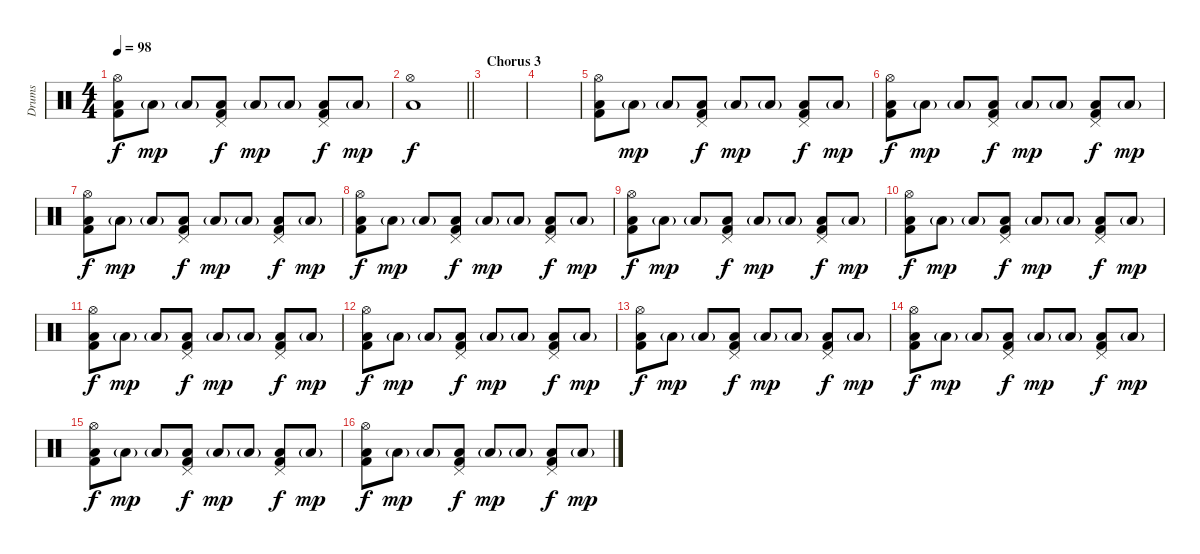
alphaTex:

\track ("Drums" "Drums") {instrument percussion}
\staff {score}
\articulation defaults
\ts (4 4)
\tempo 98
\clef neutral
\ks c
("Hi-Hat (open)" "Kick (hit) 2" "Low Tom (hit)").8{dy f} "Low Tom (hit)"{g}.8{dy mp} "Low Tom (hit)"{g}.8 ("Pedal Hi-Hat (hit)" "Kick (hit) 2" "Low Tom (hit)").8{dy f} "Low Tom (hit)"{g}.8{dy mp} "Low Tom (hit)"{g}.8 ("Pedal Hi-Hat (hit)" "Kick (hit) 2" "Low Tom (hit)").8{dy f} "Low Tom (hit)"{g}.8{dy mp} |
\barLineRight lightlight
("Hi-Hat (open)" "Low Tom (hit)").1{dy f} |
\section ("" "Chorus 3")
|
|
("Hi-Hat (open)" "Kick (hit) 2" "Low Tom (hit)").8 "Low Tom (hit)"{g}.8{dy mp} "Low Tom (hit)"{g}.8 ("Pedal Hi-Hat (hit)" "Kick (hit) 2" "Low Tom (hit)").8{dy f} "Low Tom (hit)"{g}.8{dy mp} "Low Tom (hit)"{g}.8 ("Pedal Hi-Hat (hit)" "Kick (hit) 2" "Low Tom (hit)").8{dy f} "Low Tom (hit)"{g}.8{dy mp} |
("Hi-Hat (open)" "Kick (hit) 2" "Low Tom (hit)").8{dy f} "Low Tom (hit)"{g}.8{dy mp} "Low Tom (hit)"{g}.8 ("Pedal Hi-Hat (hit)" "Kick (hit) 2" "Low Tom (hit)").8{dy f} "Low Tom (hit)"{g}.8{dy mp} "Low Tom (hit)"{g}.8 ("Pedal Hi-Hat (hit)" "Kick (hit) 2" "Low Tom (hit)").8{dy f} "Low Tom (hit)"{g}.8{dy mp} |
("Hi-Hat (open)" "Kick (hit) 2" "Low Tom (hit)").8{dy f} "Low Tom (hit)"{g}.8{dy mp} "Low Tom (hit)"{g}.8 ("Pedal Hi-Hat (hit)" "Kick (hit) 2" "Low Tom (hit)").8{dy f} "Low Tom (hit)"{g}.8{dy mp} "Low Tom (hit)"{g}.8 ("Pedal Hi-Hat (hit)" "Kick (hit) 2" "Low Tom (hit)").8{dy f} "Low Tom (hit)"{g}.8{dy mp} |
("Hi-Hat (open)" "Kick (hit) 2" "Low Tom (hit)").8{dy f} "Low Tom (hit)"{g}.8{dy mp} "Low Tom (hit)"{g}.8 ("Pedal Hi-Hat (hit)" "Kick (hit) 2" "Low Tom (hit)").8{dy f} "Low Tom (hit)"{g}.8{dy mp} "Low Tom (hit)"{g}.8 ("Pedal Hi-Hat (hit)" "Kick (hit) 2" "Low Tom (hit)").8{dy f} "Low Tom (hit)"{g}.8{dy mp} |
("Hi-Hat (open)" "Kick (hit) 2" "Low Tom (hit)").8{dy f} "Low Tom (hit)"{g}.8{dy mp} "Low Tom (hit)"{g}.8 ("Pedal Hi-Hat (hit)" "Kick (hit) 2" "Low Tom (hit)").8{dy f} "Low Tom (hit)"{g}.8{dy mp} "Low Tom (hit)"{g}.8 ("Pedal Hi-Hat (hit)" "Kick (hit) 2" "Low Tom (hit)").8{dy f} "Low Tom (hit)"{g}.8{dy mp} |
("Hi-Hat (open)" "Kick (hit) 2" "Low Tom (hit)").8{dy f} "Low Tom (hit)"{g}.8{dy mp} "Low Tom (hit)"{g}.8 ("Pedal Hi-Hat (hit)" "Kick (hit) 2" "Low Tom (hit)").8{dy f} "Low Tom (hit)"{g}.8{dy mp} "Low Tom (hit)"{g}.8 ("Pedal Hi-Hat (hit)" "Kick (hit) 2" "Low Tom (hit)").8{dy f} "Low Tom (hit)"{g}.8{dy mp} |
("Hi-Hat (open)" "Kick (hit) 2" "Low Tom (hit)").8{dy f} "Low Tom (hit)"{g}.8{dy mp} "Low Tom (hit)"{g}.8 ("Pedal Hi-Hat (hit)" "Kick (hit) 2" "Low Tom (hit)").8{dy f} "Low Tom (hit)"{g}.8{dy mp} "Low Tom (hit)"{g}.8 ("Pedal Hi-Hat (hit)" "Kick (hit) 2" "Low Tom (hit)").8{dy f} "Low Tom (hit)"{g}.8{dy mp} |
("Hi-Hat (open)" "Kick (hit) 2" "Low Tom (hit)").8{dy f} "Low Tom (hit)"{g}.8{dy mp} "Low Tom (hit)"{g}.8 ("Pedal Hi-Hat (hit)" "Kick (hit) 2" "Low Tom (hit)").8{dy f} "Low Tom (hit)"{g}.8{dy mp} "Low Tom (hit)"{g}.8 ("Pedal Hi-Hat (hit)" "Kick (hit) 2" "Low Tom (hit)").8{dy f} "Low Tom (hit)"{g}.8{dy mp} |
("Hi-Hat (open)" "Kick (hit) 2" "Low Tom (hit)").8{dy f} "Low Tom (hit)"{g}.8{dy mp} "Low Tom (hit)"{g}.8 ("Pedal Hi-Hat (hit)" "Kick (hit) 2" "Low Tom (hit)").8{dy f} "Low Tom (hit)"{g}.8{dy mp} "Low Tom (hit)"{g}.8 ("Pedal Hi-Hat (hit)" "Kick (hit) 2" "Low Tom (hit)").8{dy f} "Low Tom (hit)"{g}.8{dy mp} |
("Hi-Hat (open)" "Kick (hit) 2" "Low Tom (hit)").8{dy f} "Low Tom (hit)"{g}.8{dy mp} "Low Tom (hit)"{g}.8 ("Pedal Hi-Hat (hit)" "Kick (hit) 2" "Low Tom (hit)").8{dy f} "Low Tom (hit)"{g}.8{dy mp} "Low Tom (hit)"{g}.8 ("Pedal Hi-Hat (hit)" "Kick (hit) 2" "Low Tom (hit)").8{dy f} "Low Tom (hit)"{g}.8{dy mp} |
("Hi-Hat (open)" "Kick (hit) 2" "Low Tom (hit)").8{dy f} "Low Tom (hit)"{g}.8{dy mp} "Low Tom (hit)"{g}.8 ("Pedal Hi-Hat (hit)" "Kick (hit) 2" "Low Tom (hit)").8{dy f} "Low Tom (hit)"{g}.8{dy mp} "Low Tom (hit)"{g}.8 ("Pedal Hi-Hat (hit)" "Kick (hit) 2" "Low Tom (hit)").8{dy f} "Low Tom (hit)"{g}.8{dy mp} |
("Hi-Hat (open)" "Kick (hit) 2" "Low Tom (hit)").8{dy f} "Low Tom (hit)"{g}.8{dy mp} "Low Tom (hit)"{g}.8 ("Pedal Hi-Hat (hit)" "Kick (hit) 2" "Low Tom (hit)").8{dy f} "Low Tom (hit)"{g}.8{dy mp} "Low Tom (hit)"{g}.8 ("Pedal Hi-Hat (hit)" "Kick (hit) 2" "Low Tom (hit)").8{dy f} "Low Tom (hit)"{g}.8{dy mp}
